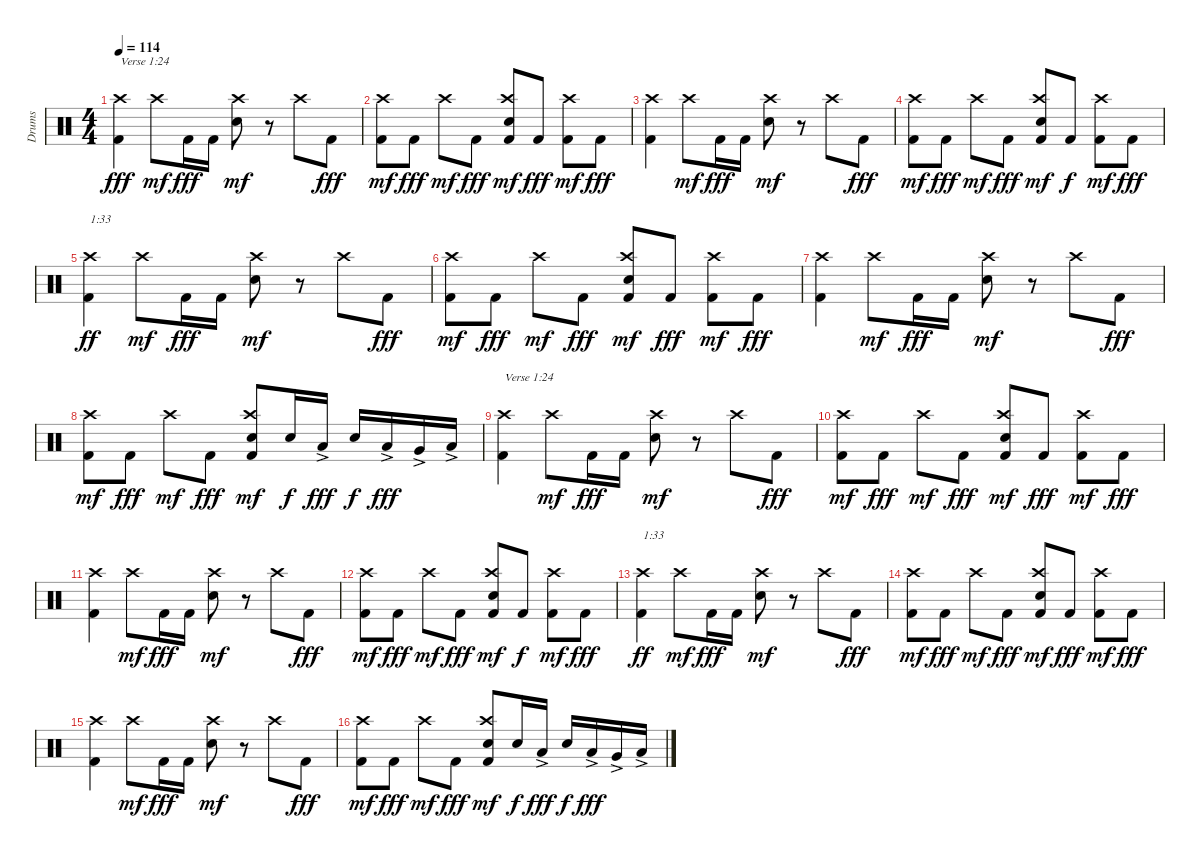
\track ("Drums" "Drums") {instrument percussion}
\staff {score}
\articulation defaults
\ts (4 4)
\tempo 114
\clef neutral
\ks c
("Kick (hit) 2" "Crash high (hit)").4{txt "Verse 1:24" dy fff} "Crash high (hit)".8{dy mf} "Kick (hit) 2".16{dy fff} "Kick (hit) 2".16 ("Electric Snare (hit)" "Crash high (hit)").8{dy mf} r.8 "Crash high (hit)".8 "Kick (hit) 2".8{dy fff} |
("Kick (hit) 2" "Crash high (hit)").8{dy mf} "Kick (hit) 2".8{dy fff} "Crash high (hit)".8{dy mf} "Kick (hit) 2".8{dy fff} ("Kick (hit) 2" "Electric Snare (hit)" "Crash high (hit)").8{dy mf} "Kick (hit) 2".8{dy fff} ("Kick (hit) 2" "Crash high (hit)").8{dy mf} "Kick (hit) 2".8{dy fff} |
("Kick (hit) 2" "Crash high (hit)").4 "Crash high (hit)".8{dy mf} "Kick (hit) 2".16{dy fff} "Kick (hit) 2".16 ("Electric Snare (hit)" "Crash high (hit)").8{dy mf} r.8 "Crash high (hit)".8 "Kick (hit) 2".8{dy fff} |
("Kick (hit) 2" "Crash high (hit)").8{dy mf} "Kick (hit) 2".8{dy fff} "Crash high (hit)".8{dy mf} "Kick (hit) 2".8{dy fff} ("Kick (hit) 2" "Electric Snare (hit)" "Crash high (hit)").8{dy mf} "Kick (hit) 2".8{dy f} ("Kick (hit) 2" "Crash high (hit)").8{dy mf} "Kick (hit) 2".8{dy fff} |
("Kick (hit) 2" "Crash high (hit)").4{txt "1:33" dy ff} "Crash high (hit)".8{dy mf} "Kick (hit) 2".16{dy fff} "Kick (hit) 2".16 ("Electric Snare (hit)" "Crash high (hit)").8{dy mf} r.8 "Crash high (hit)".8 "Kick (hit) 2".8{dy fff} |
("Kick (hit) 2" "Crash high (hit)").8{dy mf} "Kick (hit) 2".8{dy fff} "Crash high (hit)".8{dy mf} "Kick (hit) 2".8{dy fff} ("Kick (hit) 2" "Electric Snare (hit)" "Crash high (hit)").8{dy mf} "Kick (hit) 2".8{dy fff} ("Kick (hit) 2" "Crash high (hit)").8{dy mf} "Kick (hit) 2".8{dy fff} |
("Kick (hit) 2" "Crash high (hit)").4 "Crash high (hit)".8{dy mf} "Kick (hit) 2".16{dy fff} "Kick (hit) 2".16 ("Electric Snare (hit)" "Crash high (hit)").8{dy mf} r.8 "Crash high (hit)".8 "Kick (hit) 2".8{dy fff} |
("Kick (hit) 2" "Crash high (hit)").8{dy mf} "Kick (hit) 2".8{dy fff} "Crash high (hit)".8{dy mf} "Kick (hit) 2".8{dy fff} ("Kick (hit) 2" "Electric Snare (hit)" "Crash high (hit)").8{dy mf} "Electric Snare (hit)".16{dy f} "Low Tom (hit)"{ac}.16{dy fff} "Electric Snare (hit)".16{dy f} "Low Tom (hit)"{ac}.16{dy fff} "Very Low Tom (hit)"{ac}.16 "Low Floor Tom (hit)"{ac}.16 |
("Kick (hit) 2" "Crash high (hit)").4{txt "Verse 1:24"} "Crash high (hit)".8{dy mf} "Kick (hit) 2".16{dy fff} "Kick (hit) 2".16 ("Electric Snare (hit)" "Crash high (hit)").8{dy mf} r.8 "Crash high (hit)".8 "Kick (hit) 2".8{dy fff} |
("Kick (hit) 2" "Crash high (hit)").8{dy mf} "Kick (hit) 2".8{dy fff} "Crash high (hit)".8{dy mf} "Kick (hit) 2".8{dy fff} ("Kick (hit) 2" "Electric Snare (hit)" "Crash high (hit)").8{dy mf} "Kick (hit) 2".8{dy fff} ("Kick (hit) 2" "Crash high (hit)").8{dy mf} "Kick (hit) 2".8{dy fff} |
("Kick (hit) 2" "Crash high (hit)").4 "Crash high (hit)".8{dy mf} "Kick (hit) 2".16{dy fff} "Kick (hit) 2".16 ("Electric Snare (hit)" "Crash high (hit)").8{dy mf} r.8 "Crash high (hit)".8 "Kick (hit) 2".8{dy fff} |
("Kick (hit) 2" "Crash high (hit)").8{dy mf} "Kick (hit) 2".8{dy fff} "Crash high (hit)".8{dy mf} "Kick (hit) 2".8{dy fff} ("Kick (hit) 2" "Electric Snare (hit)" "Crash high (hit)").8{dy mf} "Kick (hit) 2".8{dy f} ("Kick (hit) 2" "Crash high (hit)").8{dy mf} "Kick (hit) 2".8{dy fff} |
("Kick (hit) 2" "Crash high (hit)").4{txt "1:33" dy ff} "Crash high (hit)".8{dy mf} "Kick (hit) 2".16{dy fff} "Kick (hit) 2".16 ("Electric Snare (hit)" "Crash high (hit)").8{dy mf} r.8 "Crash high (hit)".8 "Kick (hit) 2".8{dy fff} |
("Kick (hit) 2" "Crash high (hit)").8{dy mf} "Kick (hit) 2".8{dy fff} "Crash high (hit)".8{dy mf} "Kick (hit) 2".8{dy fff} ("Kick (hit) 2" "Electric Snare (hit)" "Crash high (hit)").8{dy mf} "Kick (hit) 2".8{dy fff} ("Kick (hit) 2" "Crash high (hit)").8{dy mf} "Kick (hit) 2".8{dy fff} |
("Kick (hit) 2" "Crash high (hit)").4 "Crash high (hit)".8{dy mf} "Kick (hit) 2".16{dy fff} "Kick (hit) 2".16 ("Electric Snare (hit)" "Crash high (hit)").8{dy mf} r.8 "Crash high (hit)".8 "Kick (hit) 2".8{dy fff} |
("Kick (hit) 2" "Crash high (hit)").8{dy mf} "Kick (hit) 2".8{dy fff} "Crash high (hit)".8{dy mf} "Kick (hit) 2".8{dy fff} ("Kick (hit) 2" "Electric Snare (hit)" "Crash high (hit)").8{dy mf} "Electric Snare (hit)".16{dy f} "Low Tom (hit)"{ac}.16{dy fff} "Electric Snare (hit)".16{dy f} "Low Tom (hit)"{ac}.16{dy fff} "Very Low Tom (hit)"{ac}.16 "Low Floor Tom (hit)"{ac}.16
